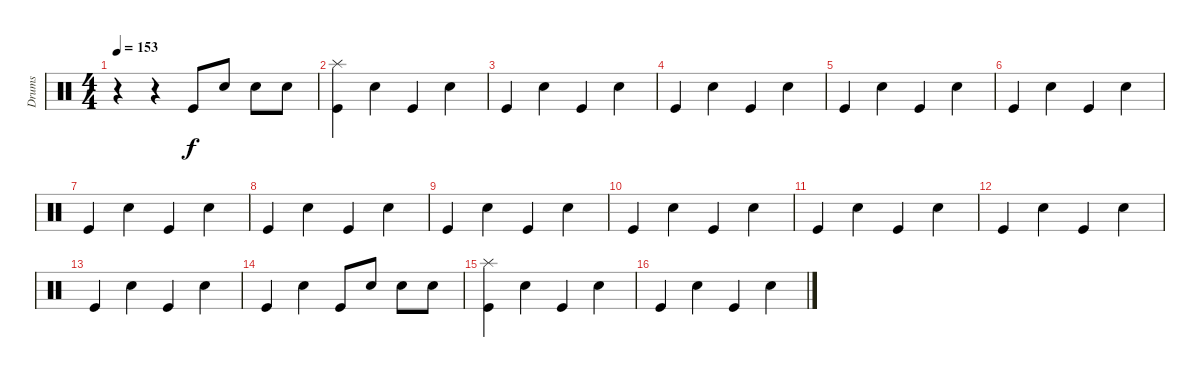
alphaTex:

\track ("Drums" "Drums") {instrument percussion}
\staff {score}
\articulation defaults
\ts (4 4)
\tempo 153
\clef neutral
\ks c
r.4{dy f} r.4 "Kick (hit)".8 "Snare (hit) 2".8 "Snare (hit) 2".8 "Snare (hit) 2".8 |
("Splash (hit)" "Kick (hit)").4 "Snare (hit) 2".4 "Kick (hit)".4 "Snare (hit) 2".4 |
"Kick (hit)".4 "Snare (hit) 2".4 "Kick (hit)".4 "Snare (hit) 2".4 |
"Kick (hit)".4 "Snare (hit) 2".4 "Kick (hit)".4 "Snare (hit) 2".4 |
"Kick (hit)".4 "Snare (hit) 2".4 "Kick (hit)".4 "Snare (hit) 2".4 |
"Kick (hit)".4 "Snare (hit) 2".4 "Kick (hit)".4 "Snare (hit) 2".4 |
"Kick (hit)".4 "Snare (hit) 2".4 "Kick (hit)".4 "Snare (hit) 2".4 |
"Kick (hit)".4 "Snare (hit) 2".4 "Kick (hit)".4 "Snare (hit) 2".4 |
"Kick (hit)".4 "Snare (hit) 2".4 "Kick (hit)".4 "Snare (hit) 2".4 |
"Kick (hit)".4 "Snare (hit) 2".4 "Kick (hit)".4 "Snare (hit) 2".4 |
"Kick (hit)".4 "Snare (hit) 2".4 "Kick (hit)".4 "Snare (hit) 2".4 |
"Kick (hit)".4 "Snare (hit) 2".4 "Kick (hit)".4 "Snare (hit) 2".4 |
"Kick (hit)".4 "Snare (hit) 2".4 "Kick (hit)".4 "Snare (hit) 2".4 |
"Kick (hit)".4 "Snare (hit) 2".4 "Kick (hit)".8 "Snare (hit) 2".8 "Snare (hit) 2".8 "Snare (hit) 2".8 |
("Splash (hit)" "Kick (hit)").4 "Snare (hit) 2".4 "Kick (hit)".4 "Snare (hit) 2".4 |
"Kick (hit)".4 "Snare (hit) 2".4 "Kick (hit)".4 "Snare (hit) 2".4
